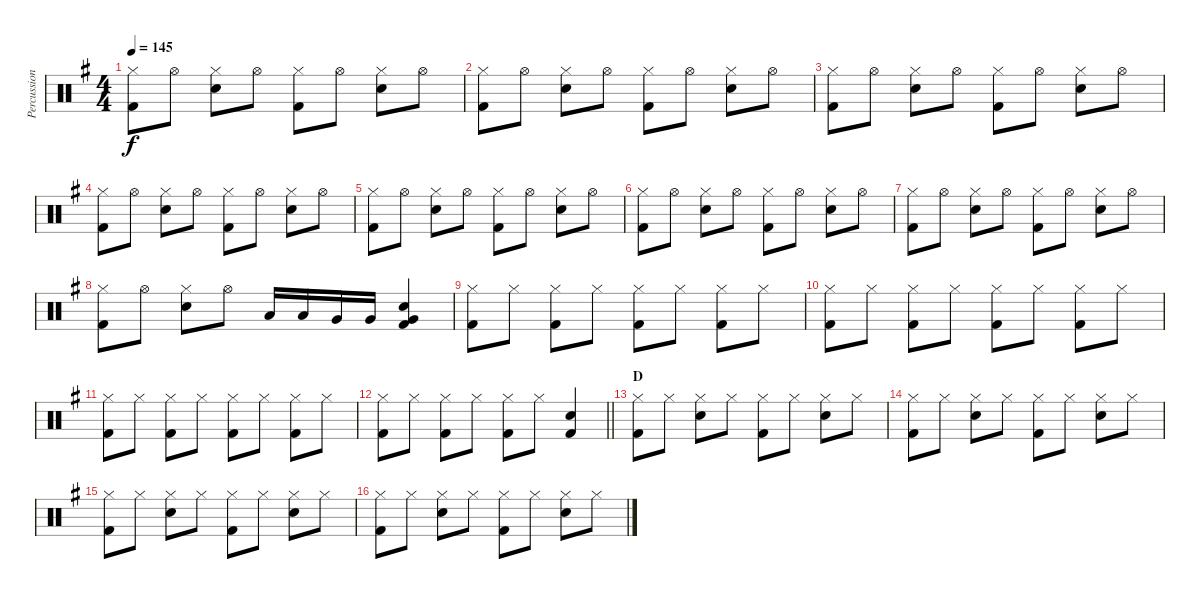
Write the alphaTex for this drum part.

\track ("Percussion" "Percussion") {instrument percussion}
\staff {score}
\articulation defaults
\ts (4 4)
\tempo 145
\clef neutral
\ks g
("Hi-Hat (closed)" "Kick (hit) 2").8{dy f} "Hi-Hat (open)".8 ("Hi-Hat (closed)" "Snare (hit) 2").8 "Hi-Hat (open)".8 ("Hi-Hat (closed)" "Kick (hit) 2").8 "Hi-Hat (open)".8 ("Hi-Hat (closed)" "Snare (hit) 2").8 "Hi-Hat (open)".8 |
("Hi-Hat (closed)" "Kick (hit) 2").8 "Hi-Hat (open)".8 ("Hi-Hat (closed)" "Snare (hit) 2").8 "Hi-Hat (open)".8 ("Hi-Hat (closed)" "Kick (hit) 2").8 "Hi-Hat (open)".8 ("Hi-Hat (closed)" "Snare (hit) 2").8 "Hi-Hat (open)".8 |
("Hi-Hat (closed)" "Kick (hit) 2").8 "Hi-Hat (open)".8 ("Hi-Hat (closed)" "Snare (hit) 2").8 "Hi-Hat (open)".8 ("Hi-Hat (closed)" "Kick (hit) 2").8 "Hi-Hat (open)".8 ("Hi-Hat (closed)" "Snare (hit) 2").8 "Hi-Hat (open)".8 |
("Hi-Hat (closed)" "Kick (hit) 2").8 "Hi-Hat (open)".8 ("Hi-Hat (closed)" "Snare (hit) 2").8 "Hi-Hat (open)".8 ("Hi-Hat (closed)" "Kick (hit) 2").8 "Hi-Hat (open)".8 ("Hi-Hat (closed)" "Snare (hit) 2").8 "Hi-Hat (open)".8 |
("Hi-Hat (closed)" "Kick (hit) 2").8 "Hi-Hat (open)".8 ("Hi-Hat (closed)" "Snare (hit) 2").8 "Hi-Hat (open)".8 ("Hi-Hat (closed)" "Kick (hit) 2").8 "Hi-Hat (open)".8 ("Hi-Hat (closed)" "Snare (hit) 2").8 "Hi-Hat (open)".8 |
("Hi-Hat (closed)" "Kick (hit) 2").8 "Hi-Hat (open)".8 ("Hi-Hat (closed)" "Snare (hit) 2").8 "Hi-Hat (open)".8 ("Hi-Hat (closed)" "Kick (hit) 2").8 "Hi-Hat (open)".8 ("Hi-Hat (closed)" "Snare (hit) 2").8 "Hi-Hat (open)".8 |
("Hi-Hat (closed)" "Kick (hit) 2").8 "Hi-Hat (open)".8 ("Hi-Hat (closed)" "Snare (hit) 2").8 "Hi-Hat (open)".8 ("Hi-Hat (closed)" "Kick (hit) 2").8 "Hi-Hat (open)".8 ("Hi-Hat (closed)" "Snare (hit) 2").8 "Hi-Hat (open)".8 |
("Hi-Hat (closed)" "Kick (hit) 2").8 "Hi-Hat (open)".8 ("Hi-Hat (closed)" "Snare (hit) 2").8 "Hi-Hat (open)".8 "Low Tom (hit)".16 "Low Tom (hit)".16 "Very Low Tom (hit)".16 "Very Low Tom (hit)".16 ("Very Low Tom (hit)" "Snare (hit) 2" "Kick (hit) 2").4 |
("Hi-Hat (closed)" "Kick (hit) 2").8 "Hi-Hat (closed)".8 ("Hi-Hat (closed)" "Kick (hit) 2").8 "Hi-Hat (closed)".8 ("Hi-Hat (closed)" "Kick (hit) 2").8 "Hi-Hat (closed)".8 ("Hi-Hat (closed)" "Kick (hit) 2").8 "Hi-Hat (closed)".8 |
("Hi-Hat (closed)" "Kick (hit) 2").8 "Hi-Hat (closed)".8 ("Hi-Hat (closed)" "Kick (hit) 2").8 "Hi-Hat (closed)".8 ("Hi-Hat (closed)" "Kick (hit) 2").8 "Hi-Hat (closed)".8 ("Hi-Hat (closed)" "Kick (hit) 2").8 "Hi-Hat (closed)".8 |
("Hi-Hat (closed)" "Kick (hit) 2").8 "Hi-Hat (closed)".8 ("Hi-Hat (closed)" "Kick (hit) 2").8 "Hi-Hat (closed)".8 ("Hi-Hat (closed)" "Kick (hit) 2").8 "Hi-Hat (closed)".8 ("Hi-Hat (closed)" "Kick (hit) 2").8 "Hi-Hat (closed)".8 |
\barLineRight lightlight
("Hi-Hat (closed)" "Kick (hit) 2").8 "Hi-Hat (closed)".8 ("Hi-Hat (closed)" "Kick (hit) 2").8 "Hi-Hat (closed)".8 ("Hi-Hat (closed)" "Kick (hit) 2").8 "Hi-Hat (closed)".8 ("Snare (hit) 2" "Kick (hit) 2").4 |
\section ("" "D")
("Hi-Hat (closed)" "Kick (hit) 2").8 "Hi-Hat (closed)".8 ("Hi-Hat (closed)" "Snare (hit) 2").8 "Hi-Hat (closed)".8 ("Hi-Hat (closed)" "Kick (hit) 2").8 "Hi-Hat (closed)".8 ("Hi-Hat (closed)" "Snare (hit) 2").8 "Hi-Hat (closed)".8 |
("Hi-Hat (closed)" "Kick (hit) 2").8 "Hi-Hat (closed)".8 ("Hi-Hat (closed)" "Snare (hit) 2").8 "Hi-Hat (closed)".8 ("Hi-Hat (closed)" "Kick (hit) 2").8 "Hi-Hat (closed)".8 ("Hi-Hat (closed)" "Snare (hit) 2").8 "Hi-Hat (closed)".8 |
("Hi-Hat (closed)" "Kick (hit) 2").8 "Hi-Hat (closed)".8 ("Hi-Hat (closed)" "Snare (hit) 2").8 "Hi-Hat (closed)".8 ("Hi-Hat (closed)" "Kick (hit) 2").8 "Hi-Hat (closed)".8 ("Hi-Hat (closed)" "Snare (hit) 2").8 "Hi-Hat (closed)".8 |
("Hi-Hat (closed)" "Kick (hit) 2").8 "Hi-Hat (closed)".8 ("Hi-Hat (closed)" "Snare (hit) 2").8 "Hi-Hat (closed)".8 ("Hi-Hat (closed)" "Kick (hit) 2").8 "Hi-Hat (closed)".8 ("Hi-Hat (closed)" "Snare (hit) 2").8 "Hi-Hat (closed)".8
